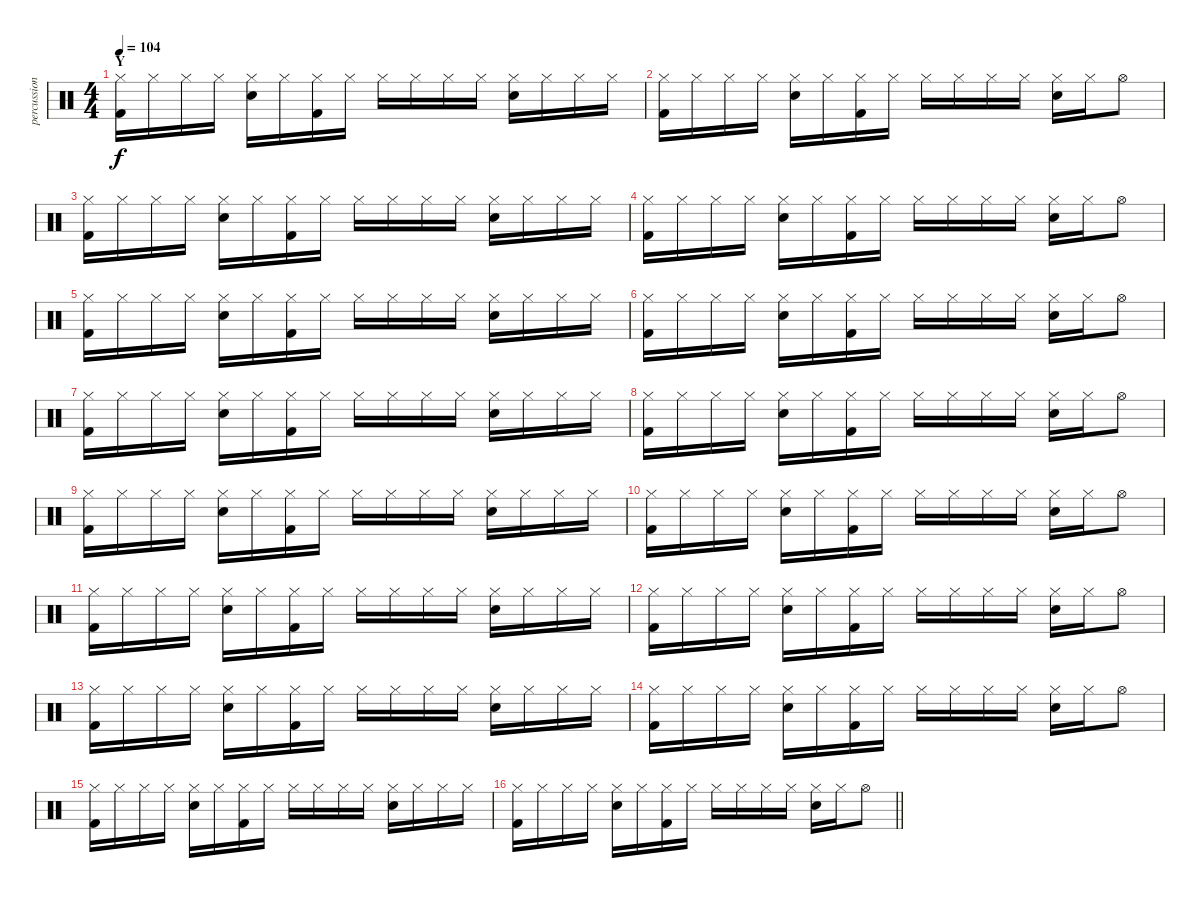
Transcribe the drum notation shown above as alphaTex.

\track ("percussion" "percussion") {instrument percussion}
\staff {score}
\articulation defaults
\ts (4 4)
\section ("" "Y")
\tempo 104
\clef neutral
\ks c
("Hi-Hat (closed)" "Kick (hit) 2").16{dy f} "Hi-Hat (closed)".16 "Hi-Hat (closed)".16 "Hi-Hat (closed)".16 ("Snare (hit) 2" "Hi-Hat (closed)").16 "Hi-Hat (closed)".16 ("Hi-Hat (closed)" "Kick (hit) 2").16 "Hi-Hat (closed)".16 "Hi-Hat (closed)".16 "Hi-Hat (closed)".16 "Hi-Hat (closed)".16 "Hi-Hat (closed)".16 ("Snare (hit) 2" "Hi-Hat (closed)").16 "Hi-Hat (closed)".16 "Hi-Hat (closed)".16 "Hi-Hat (closed)".16 |
("Hi-Hat (closed)" "Kick (hit) 2").16 "Hi-Hat (closed)".16 "Hi-Hat (closed)".16 "Hi-Hat (closed)".16 ("Snare (hit) 2" "Hi-Hat (closed)").16 "Hi-Hat (closed)".16 ("Hi-Hat (closed)" "Kick (hit) 2").16 "Hi-Hat (closed)".16 "Hi-Hat (closed)".16 "Hi-Hat (closed)".16 "Hi-Hat (closed)".16 "Hi-Hat (closed)".16 ("Snare (hit) 2" "Hi-Hat (closed)").16 "Hi-Hat (closed)".16 "Hi-Hat (open)".8 |
("Hi-Hat (closed)" "Kick (hit) 2").16 "Hi-Hat (closed)".16 "Hi-Hat (closed)".16 "Hi-Hat (closed)".16 ("Snare (hit) 2" "Hi-Hat (closed)").16 "Hi-Hat (closed)".16 ("Hi-Hat (closed)" "Kick (hit) 2").16 "Hi-Hat (closed)".16 "Hi-Hat (closed)".16 "Hi-Hat (closed)".16 "Hi-Hat (closed)".16 "Hi-Hat (closed)".16 ("Snare (hit) 2" "Hi-Hat (closed)").16 "Hi-Hat (closed)".16 "Hi-Hat (closed)".16 "Hi-Hat (closed)".16 |
("Hi-Hat (closed)" "Kick (hit) 2").16 "Hi-Hat (closed)".16 "Hi-Hat (closed)".16 "Hi-Hat (closed)".16 ("Snare (hit) 2" "Hi-Hat (closed)").16 "Hi-Hat (closed)".16 ("Hi-Hat (closed)" "Kick (hit) 2").16 "Hi-Hat (closed)".16 "Hi-Hat (closed)".16 "Hi-Hat (closed)".16 "Hi-Hat (closed)".16 "Hi-Hat (closed)".16 ("Snare (hit) 2" "Hi-Hat (closed)").16 "Hi-Hat (closed)".16 "Hi-Hat (open)".8 |
("Hi-Hat (closed)" "Kick (hit) 2").16 "Hi-Hat (closed)".16 "Hi-Hat (closed)".16 "Hi-Hat (closed)".16 ("Snare (hit) 2" "Hi-Hat (closed)").16 "Hi-Hat (closed)".16 ("Hi-Hat (closed)" "Kick (hit) 2").16 "Hi-Hat (closed)".16 "Hi-Hat (closed)".16 "Hi-Hat (closed)".16 "Hi-Hat (closed)".16 "Hi-Hat (closed)".16 ("Snare (hit) 2" "Hi-Hat (closed)").16 "Hi-Hat (closed)".16 "Hi-Hat (closed)".16 "Hi-Hat (closed)".16 |
("Hi-Hat (closed)" "Kick (hit) 2").16 "Hi-Hat (closed)".16 "Hi-Hat (closed)".16 "Hi-Hat (closed)".16 ("Snare (hit) 2" "Hi-Hat (closed)").16 "Hi-Hat (closed)".16 ("Hi-Hat (closed)" "Kick (hit) 2").16 "Hi-Hat (closed)".16 "Hi-Hat (closed)".16 "Hi-Hat (closed)".16 "Hi-Hat (closed)".16 "Hi-Hat (closed)".16 ("Snare (hit) 2" "Hi-Hat (closed)").16 "Hi-Hat (closed)".16 "Hi-Hat (open)".8 |
("Hi-Hat (closed)" "Kick (hit) 2").16 "Hi-Hat (closed)".16 "Hi-Hat (closed)".16 "Hi-Hat (closed)".16 ("Snare (hit) 2" "Hi-Hat (closed)").16 "Hi-Hat (closed)".16 ("Hi-Hat (closed)" "Kick (hit) 2").16 "Hi-Hat (closed)".16 "Hi-Hat (closed)".16 "Hi-Hat (closed)".16 "Hi-Hat (closed)".16 "Hi-Hat (closed)".16 ("Snare (hit) 2" "Hi-Hat (closed)").16 "Hi-Hat (closed)".16 "Hi-Hat (closed)".16 "Hi-Hat (closed)".16 |
("Hi-Hat (closed)" "Kick (hit) 2").16 "Hi-Hat (closed)".16 "Hi-Hat (closed)".16 "Hi-Hat (closed)".16 ("Snare (hit) 2" "Hi-Hat (closed)").16 "Hi-Hat (closed)".16 ("Hi-Hat (closed)" "Kick (hit) 2").16 "Hi-Hat (closed)".16 "Hi-Hat (closed)".16 "Hi-Hat (closed)".16 "Hi-Hat (closed)".16 "Hi-Hat (closed)".16 ("Snare (hit) 2" "Hi-Hat (closed)").16 "Hi-Hat (closed)".16 "Hi-Hat (open)".8 |
("Hi-Hat (closed)" "Kick (hit) 2").16 "Hi-Hat (closed)".16 "Hi-Hat (closed)".16 "Hi-Hat (closed)".16 ("Snare (hit) 2" "Hi-Hat (closed)").16 "Hi-Hat (closed)".16 ("Hi-Hat (closed)" "Kick (hit) 2").16 "Hi-Hat (closed)".16 "Hi-Hat (closed)".16 "Hi-Hat (closed)".16 "Hi-Hat (closed)".16 "Hi-Hat (closed)".16 ("Snare (hit) 2" "Hi-Hat (closed)").16 "Hi-Hat (closed)".16 "Hi-Hat (closed)".16 "Hi-Hat (closed)".16 |
("Hi-Hat (closed)" "Kick (hit) 2").16 "Hi-Hat (closed)".16 "Hi-Hat (closed)".16 "Hi-Hat (closed)".16 ("Snare (hit) 2" "Hi-Hat (closed)").16 "Hi-Hat (closed)".16 ("Hi-Hat (closed)" "Kick (hit) 2").16 "Hi-Hat (closed)".16 "Hi-Hat (closed)".16 "Hi-Hat (closed)".16 "Hi-Hat (closed)".16 "Hi-Hat (closed)".16 ("Snare (hit) 2" "Hi-Hat (closed)").16 "Hi-Hat (closed)".16 "Hi-Hat (open)".8 |
("Hi-Hat (closed)" "Kick (hit) 2").16 "Hi-Hat (closed)".16 "Hi-Hat (closed)".16 "Hi-Hat (closed)".16 ("Snare (hit) 2" "Hi-Hat (closed)").16 "Hi-Hat (closed)".16 ("Hi-Hat (closed)" "Kick (hit) 2").16 "Hi-Hat (closed)".16 "Hi-Hat (closed)".16 "Hi-Hat (closed)".16 "Hi-Hat (closed)".16 "Hi-Hat (closed)".16 ("Snare (hit) 2" "Hi-Hat (closed)").16 "Hi-Hat (closed)".16 "Hi-Hat (closed)".16 "Hi-Hat (closed)".16 |
("Hi-Hat (closed)" "Kick (hit) 2").16 "Hi-Hat (closed)".16 "Hi-Hat (closed)".16 "Hi-Hat (closed)".16 ("Snare (hit) 2" "Hi-Hat (closed)").16 "Hi-Hat (closed)".16 ("Hi-Hat (closed)" "Kick (hit) 2").16 "Hi-Hat (closed)".16 "Hi-Hat (closed)".16 "Hi-Hat (closed)".16 "Hi-Hat (closed)".16 "Hi-Hat (closed)".16 ("Snare (hit) 2" "Hi-Hat (closed)").16 "Hi-Hat (closed)".16 "Hi-Hat (open)".8 |
("Hi-Hat (closed)" "Kick (hit) 2").16 "Hi-Hat (closed)".16 "Hi-Hat (closed)".16 "Hi-Hat (closed)".16 ("Snare (hit) 2" "Hi-Hat (closed)").16 "Hi-Hat (closed)".16 ("Hi-Hat (closed)" "Kick (hit) 2").16 "Hi-Hat (closed)".16 "Hi-Hat (closed)".16 "Hi-Hat (closed)".16 "Hi-Hat (closed)".16 "Hi-Hat (closed)".16 ("Snare (hit) 2" "Hi-Hat (closed)").16 "Hi-Hat (closed)".16 "Hi-Hat (closed)".16 "Hi-Hat (closed)".16 |
("Hi-Hat (closed)" "Kick (hit) 2").16 "Hi-Hat (closed)".16 "Hi-Hat (closed)".16 "Hi-Hat (closed)".16 ("Snare (hit) 2" "Hi-Hat (closed)").16 "Hi-Hat (closed)".16 ("Hi-Hat (closed)" "Kick (hit) 2").16 "Hi-Hat (closed)".16 "Hi-Hat (closed)".16 "Hi-Hat (closed)".16 "Hi-Hat (closed)".16 "Hi-Hat (closed)".16 ("Snare (hit) 2" "Hi-Hat (closed)").16 "Hi-Hat (closed)".16 "Hi-Hat (open)".8 |
("Hi-Hat (closed)" "Kick (hit) 2").16 "Hi-Hat (closed)".16 "Hi-Hat (closed)".16 "Hi-Hat (closed)".16 ("Snare (hit) 2" "Hi-Hat (closed)").16 "Hi-Hat (closed)".16 ("Hi-Hat (closed)" "Kick (hit) 2").16 "Hi-Hat (closed)".16 "Hi-Hat (closed)".16 "Hi-Hat (closed)".16 "Hi-Hat (closed)".16 "Hi-Hat (closed)".16 ("Snare (hit) 2" "Hi-Hat (closed)").16 "Hi-Hat (closed)".16 "Hi-Hat (closed)".16 "Hi-Hat (closed)".16 |
\barLineRight lightlight
("Hi-Hat (closed)" "Kick (hit) 2").16 "Hi-Hat (closed)".16 "Hi-Hat (closed)".16 "Hi-Hat (closed)".16 ("Snare (hit) 2" "Hi-Hat (closed)").16 "Hi-Hat (closed)".16 ("Hi-Hat (closed)" "Kick (hit) 2").16 "Hi-Hat (closed)".16 "Hi-Hat (closed)".16 "Hi-Hat (closed)".16 "Hi-Hat (closed)".16 "Hi-Hat (closed)".16 ("Snare (hit) 2" "Hi-Hat (closed)").16 "Hi-Hat (closed)".16 "Hi-Hat (open)".8
